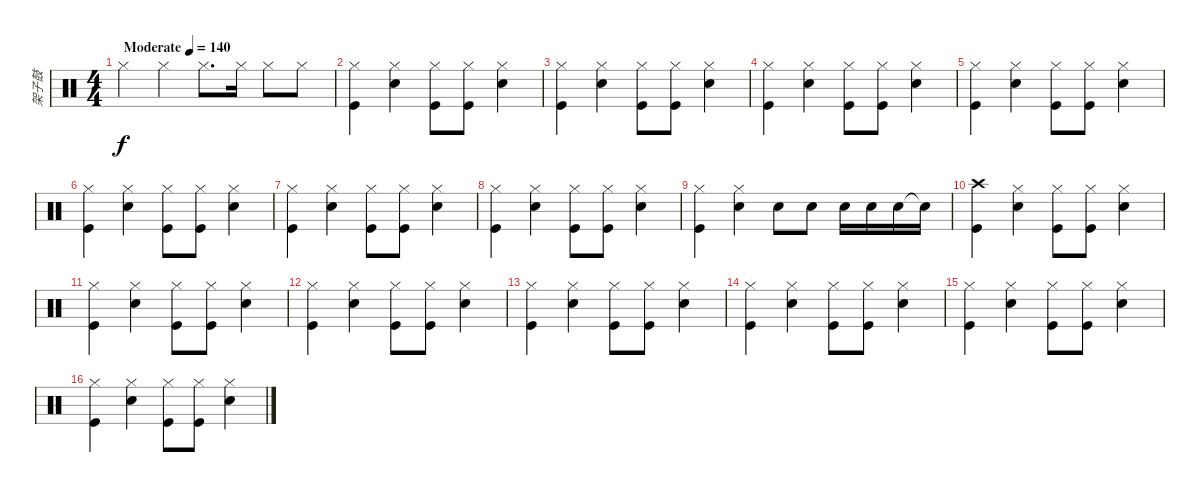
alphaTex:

\track ("架子鼓" "架子鼓") {instrument percussion}
\staff {score}
\articulation defaults
\ts (4 4)
\tempo (140 "Moderate")
\clef neutral
\ks c "Hi-Hat (closed)".4{dy f} "Hi-Hat (closed)".4 "Hi-Hat (closed)".8{d} "Hi-Hat (closed)".16 "Hi-Hat (closed)".8 "Hi-Hat (closed)".8
|
("Hi-Hat (closed)" "Kick (hit)").4 ("Hi-Hat (closed)" "Electric Snare (hit)").4 ("Hi-Hat (closed)" "Kick (hit)").8 ("Hi-Hat (closed)" "Kick (hit)").8 ("Hi-Hat (closed)" "Electric Snare (hit)").4 |
("Hi-Hat (closed)" "Kick (hit)").4 ("Hi-Hat (closed)" "Electric Snare (hit)").4 ("Hi-Hat (closed)" "Kick (hit)").8 ("Hi-Hat (closed)" "Kick (hit)").8 ("Hi-Hat (closed)" "Electric Snare (hit)").4 |
("Hi-Hat (closed)" "Kick (hit)").4 ("Hi-Hat (closed)" "Electric Snare (hit)").4 ("Hi-Hat (closed)" "Kick (hit)").8 ("Hi-Hat (closed)" "Kick (hit)").8 ("Hi-Hat (closed)" "Electric Snare (hit)").4 |
("Hi-Hat (closed)" "Kick (hit)").4 ("Hi-Hat (closed)" "Electric Snare (hit)").4 ("Hi-Hat (closed)" "Kick (hit)").8 ("Hi-Hat (closed)" "Kick (hit)").8 ("Hi-Hat (closed)" "Electric Snare (hit)").4 |
("Hi-Hat (closed)" "Kick (hit)").4 ("Hi-Hat (closed)" "Electric Snare (hit)").4 ("Hi-Hat (closed)" "Kick (hit)").8 ("Hi-Hat (closed)" "Kick (hit)").8 ("Hi-Hat (closed)" "Electric Snare (hit)").4 |
("Hi-Hat (closed)" "Kick (hit)").4 ("Hi-Hat (closed)" "Electric Snare (hit)").4 ("Hi-Hat (closed)" "Kick (hit)").8 ("Hi-Hat (closed)" "Kick (hit)").8 ("Hi-Hat (closed)" "Electric Snare (hit)").4 |
("Hi-Hat (closed)" "Kick (hit)").4 ("Hi-Hat (closed)" "Electric Snare (hit)").4 ("Hi-Hat (closed)" "Kick (hit)").8 ("Hi-Hat (closed)" "Kick (hit)").8 ("Hi-Hat (closed)" "Electric Snare (hit)").4 |
("Hi-Hat (closed)" "Kick (hit)").4 ("Hi-Hat (closed)" "Electric Snare (hit)").4 "Electric Snare (hit)".8 "Electric Snare (hit)".8 "Electric Snare (hit)".16 "Electric Snare (hit)".16 "Electric Snare (hit)".16 "Snare (hit)"{t}.16 |
("Crash high (hit)" "Kick (hit)").4 ("Hi-Hat (closed)" "Electric Snare (hit)").4 ("Hi-Hat (closed)" "Kick (hit)").8 ("Hi-Hat (closed)" "Kick (hit)").8 ("Hi-Hat (closed)" "Electric Snare (hit)").4 |
("Hi-Hat (closed)" "Kick (hit)").4 ("Hi-Hat (closed)" "Electric Snare (hit)").4 ("Hi-Hat (closed)" "Kick (hit)").8 ("Hi-Hat (closed)" "Kick (hit)").8 ("Hi-Hat (closed)" "Electric Snare (hit)").4 |
("Hi-Hat (closed)" "Kick (hit)").4 ("Hi-Hat (closed)" "Electric Snare (hit)").4 ("Hi-Hat (closed)" "Kick (hit)").8 ("Hi-Hat (closed)" "Kick (hit)").8 ("Hi-Hat (closed)" "Electric Snare (hit)").4 |
("Hi-Hat (closed)" "Kick (hit)").4 ("Hi-Hat (closed)" "Electric Snare (hit)").4 ("Hi-Hat (closed)" "Kick (hit)").8 ("Hi-Hat (closed)" "Kick (hit)").8 ("Hi-Hat (closed)" "Electric Snare (hit)").4 |
("Hi-Hat (closed)" "Kick (hit)").4 ("Hi-Hat (closed)" "Electric Snare (hit)").4 ("Hi-Hat (closed)" "Kick (hit)").8 ("Hi-Hat (closed)" "Kick (hit)").8 ("Hi-Hat (closed)" "Electric Snare (hit)").4 |
("Hi-Hat (closed)" "Kick (hit)").4 ("Hi-Hat (closed)" "Electric Snare (hit)").4 ("Hi-Hat (closed)" "Kick (hit)").8 ("Hi-Hat (closed)" "Kick (hit)").8 ("Hi-Hat (closed)" "Electric Snare (hit)").4 |
("Hi-Hat (closed)" "Kick (hit)").4 ("Hi-Hat (closed)" "Electric Snare (hit)").4 ("Hi-Hat (closed)" "Kick (hit)").8 ("Hi-Hat (closed)" "Kick (hit)").8 ("Hi-Hat (closed)" "Electric Snare (hit)").4
